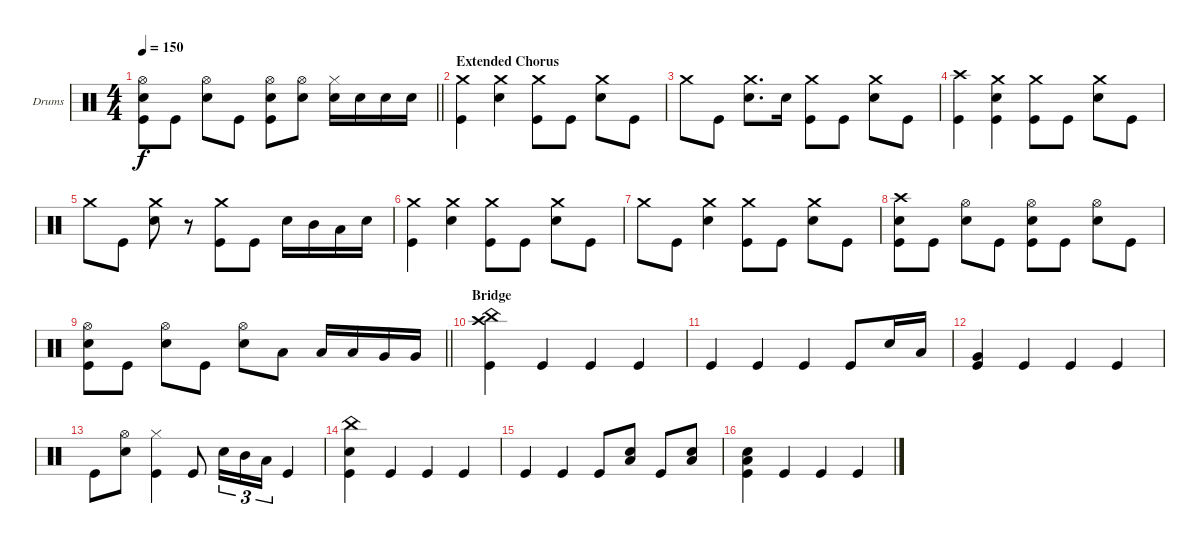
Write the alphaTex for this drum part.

\bracketExtendMode groupsimilarinstruments
\firstSystemTrackNameOrientation horizontal
\otherSystemsTrackNameOrientation horizontal
\track ("Drumkit" "Drums") {instrument percussion}
\staff {score}
\articulation defaults
\ts (4 4)
\tempo 150
\clef neutral
\barLineRight lightlight
\ks c
("Hi-Hat (open)" "Snare (hit) 2" "Kick (hit)").8{dy f} "Kick (hit)".8 ("Hi-Hat (open)" "Snare (hit) 2").8 "Kick (hit)".8 ("Hi-Hat (open)" "Snare (hit) 2" "Kick (hit)").8 ("Hi-Hat (open)" "Snare (hit) 2").8 ("Hi-Hat (closed)" "Snare (hit) 2").16 "Snare (hit) 2".16 "Snare (hit) 2".16 "Snare (hit) 2".16 |
\section ("" "Extended Chorus")
("Crash medium (hit)" "Kick (hit)").4 ("Crash medium (hit)" "Snare (hit) 2").4 ("Crash medium (hit)" "Kick (hit)").8 "Kick (hit)".8 ("Crash medium (hit)" "Snare (hit) 2").8 "Kick (hit)".8 |
"Crash medium (hit)".8 "Kick (hit)".8 ("Crash medium (hit)" "Snare (hit) 2").8{d} "Snare (hit) 2".16 ("Crash medium (hit)" "Kick (hit)").8 "Kick (hit)".8 ("Crash medium (hit)" "Snare (hit) 2").8 "Kick (hit)".8 |
("Crash high (hit)" "Kick (hit)").4 ("Crash medium (hit)" "Snare (hit) 2" "Kick (hit)").4 ("Crash medium (hit)" "Kick (hit)").8 "Kick (hit)".8 ("Crash medium (hit)" "Snare (hit) 2").8 "Kick (hit)".8 |
"Crash medium (hit)".8 "Kick (hit)".8 ("Crash medium (hit)" "Snare (hit) 2").8 r.8 ("Crash medium (hit)" "Kick (hit)").8 "Kick (hit)".8 "Snare (hit) 2".16 "Mid Tom (hit)".16 "Low Tom (hit)".16 "Snare (hit) 2".16 |
("Crash medium (hit)" "Kick (hit)").4 ("Crash medium (hit)" "Snare (hit) 2").4 ("Crash medium (hit)" "Kick (hit)").8 "Kick (hit)".8 ("Crash medium (hit)" "Snare (hit) 2").8 "Kick (hit)".8 |
"Crash medium (hit)".8 "Kick (hit)".8 ("Crash medium (hit)" "Snare (hit) 2").4 ("Crash medium (hit)" "Kick (hit)").8 "Kick (hit)".8 ("Crash medium (hit)" "Snare (hit) 2").8 "Kick (hit)".8 |
("Crash high (hit)" "Snare (hit) 2" "Kick (hit)").8 "Kick (hit)".8 ("Hi-Hat (open)" "Snare (hit) 2").8 "Kick (hit)".8 ("Hi-Hat (open)" "Snare (hit) 2" "Kick (hit)").8 "Kick (hit)".8 ("Hi-Hat (open)" "Snare (hit) 2").8 "Kick (hit)".8 |
\barLineRight lightlight
("Hi-Hat (open)" "Snare (hit) 2" "Kick (hit)").8 "Kick (hit)".8 ("Hi-Hat (open)" "Snare (hit) 2").8 "Kick (hit)".8 ("Hi-Hat (open)" "Snare (hit) 2").8 "Low Tom (hit)".8 "Low Tom (hit)".16 "Low Tom (hit)".16 "Very Low Tom (hit)".16 "Very Low Tom (hit)".16 |
\section ("" "Bridge")
("China (hit)" "Crash high (hit)" "Kick (hit)").4 "Kick (hit)".4 "Kick (hit)".4 "Kick (hit)".4 |
"Kick (hit)".4 "Kick (hit)".4 "Kick (hit)".4 "Kick (hit)".8 "Snare (hit) 2".16 "Low Tom (hit)".16 |
("Very Low Tom (hit)" "Kick (hit)").4 "Kick (hit)".4 "Kick (hit)".4 "Kick (hit)".4 |
"Kick (hit)".8 ("Hi-Hat (open)" "Snare (hit) 2").8 ("Hi-Hat (closed)" "Kick (hit)").4 "Kick (hit)".8 "Snare (hit) 2".16{tu (3 2)} "Mid Tom (hit)".16{tu (3 2)} "Low Tom (hit)".16{tu (3 2)} "Kick (hit)".4 |
("China (hit)" "Snare (hit) 2" "Kick (hit)").4 "Kick (hit)".4 "Kick (hit)".4 "Kick (hit)".4 |
"Kick (hit)".4 "Kick (hit)".4 "Kick (hit)".8 ("Snare (hit) 2" "Low Tom (hit)").8 "Kick (hit)".8 ("Snare (hit) 2" "Low Tom (hit)").8 |
("Snare (hit) 2" "Low Tom (hit)" "Kick (hit)").4 "Kick (hit)".4 "Kick (hit)".4 "Kick (hit)".4
